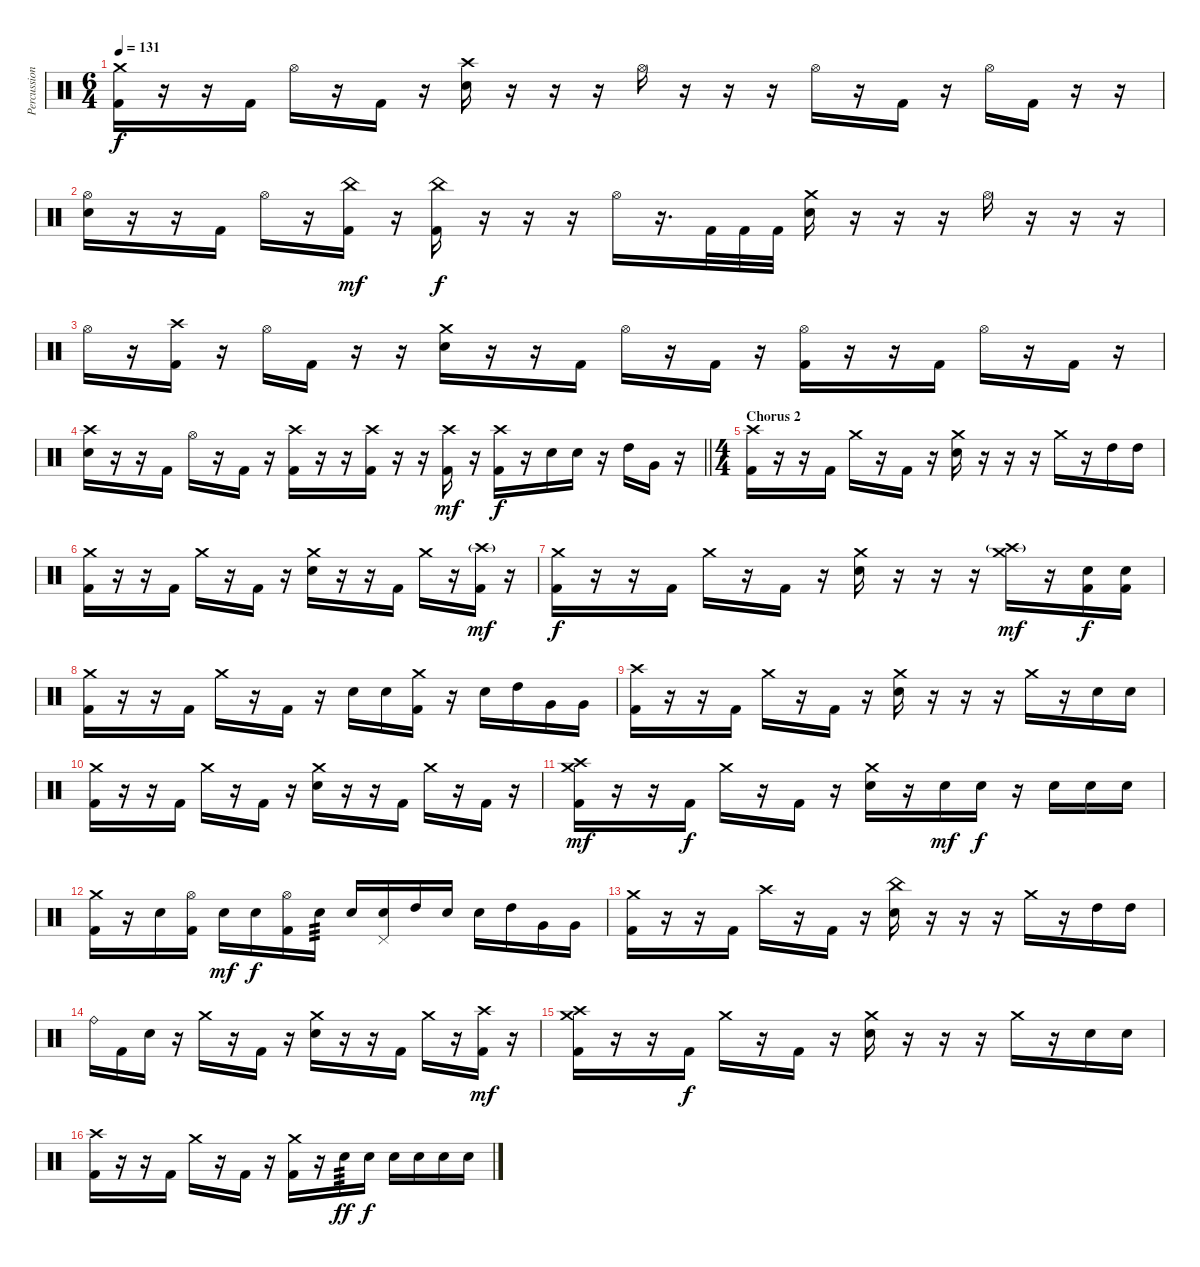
\track ("Percussion" "Percussion") {instrument percussion}
\staff {score}
\articulation defaults
\ts (6 4)
\tempo 131
\clef neutral
\ks c
("Crash medium (hit)" "Kick (hit) 2").16{dy f} r.16 r.16 "Kick (hit) 2".16 "Hi-Hat (open)".16 r.16 "Kick (hit) 2".16 r.16 ("Crash high (hit)" "Snare (hit) 2").16 r.16 r.16 r.16 "Hi-Hat (open)".16 r.16 r.16 r.16 "Hi-Hat (open)".16 r.16 "Kick (hit) 2".16 r.16 "Hi-Hat (open)".16 "Kick (hit) 2".16 r.16 r.16 |
("Hi-Hat (open)" "Snare (hit) 2").16 r.16 r.16 "Kick (hit) 2".16 "Hi-Hat (open)".16 r.16 ("China (hit)" "Kick (hit) 2").16{dy mf} r.16 ("China (hit)" "Kick (hit) 2").16{dy f} r.16 r.16 r.16 "Hi-Hat (open)".16 r.16{d} "Kick (hit) 2".32 "Kick (hit) 2".32 "Kick (hit) 2".32 ("Crash medium (hit)" "Snare (hit) 2").16 r.16 r.16 r.16 "Hi-Hat (open)".16 r.16 r.16 r.16 |
"Hi-Hat (open)".16 r.16 ("Crash high (hit)" "Kick (hit) 2").16 r.16 "Hi-Hat (open)".16 "Kick (hit) 2".16 r.16 r.16 ("Crash medium (hit)" "Snare (hit) 2").16 r.16 r.16 "Kick (hit) 2".16 "Hi-Hat (open)".16 r.16 "Kick (hit) 2".16 r.16 ("Hi-Hat (open)" "Kick (hit) 2").16 r.16 r.16 "Kick (hit) 2".16 "Hi-Hat (open)".16 r.16 "Kick (hit) 2".16 r.16 |
\barLineRight lightlight
("Crash high (hit)" "Snare (hit) 2").16 r.16 r.16 "Kick (hit) 2".16 "Hi-Hat (open)".16 r.16 "Kick (hit) 2".16 r.16 ("Crash high (hit)" "Kick (hit) 2").16 r.16 r.16 ("Crash high (hit)" "Kick (hit) 2").16 r.16 r.16 ("Crash high (hit)" "Kick (hit) 2").16{dy mf} r.16 ("Crash high (hit)" "Kick (hit) 2").16{dy f} r.16 "Snare (hit) 2".16 "Snare (hit) 2".16 r.16 "High Tom (hit)".16 "Very Low Tom (hit)".16 r.16 |
\ts (4 4)
\section ("" "Chorus 2")
("Crash high (hit)" "Kick (hit) 2").16 r.16 r.16 "Kick (hit) 2".16 "Crash medium (hit)".16 r.16 "Kick (hit) 2".16 r.16 ("Crash medium (hit)" "Snare (hit) 2").16 r.16 r.16 r.16 "Crash medium (hit)".16 r.16 "High Tom (hit)".16 "High Tom (hit)".16 |
("Crash medium (hit)" "Kick (hit) 2").16 r.16 r.16 "Kick (hit) 2".16 "Crash medium (hit)".16 r.16 "Kick (hit) 2".16 r.16 ("Crash medium (hit)" "Snare (hit) 2").16 r.16 r.16 "Kick (hit) 2".16 "Crash medium (hit)".16 r.16 ("Crash high (hit)"{g} "Kick (hit) 2").16{dy mf} r.16 |
("Crash medium (hit)" "Kick (hit) 2").16{dy f} r.16 r.16 "Kick (hit) 2".16 "Crash medium (hit)".16 r.16 "Kick (hit) 2".16 r.16 ("Crash medium (hit)" "Snare (hit) 2").16 r.16 r.16 r.16 ("Crash medium (hit)" "Crash high (hit)"{g}).16{dy mf} r.16 ("Snare (hit) 2" "Kick (hit) 2").16{dy f} ("Snare (hit) 2" "Kick (hit) 2").16 |
("Crash medium (hit)" "Kick (hit) 2").16 r.16 r.16 "Kick (hit) 2".16 "Crash medium (hit)".16 r.16 "Kick (hit) 2".16 r.16 "Snare (hit) 2".16 "Snare (hit) 2".16 ("Crash medium (hit)" "Kick (hit) 2").16 r.16 "Snare (hit) 2".16 "High Tom (hit)".16 "Very Low Tom (hit)".16 "Very Low Tom (hit)".16 |
("Crash high (hit)" "Kick (hit) 2").16 r.16 r.16 "Kick (hit) 2".16 "Crash medium (hit)".16 r.16 "Kick (hit) 2".16 r.16 ("Crash medium (hit)" "Snare (hit) 2").16 r.16 r.16 r.16 "Crash medium (hit)".16 r.16 "Snare (hit) 2".16 "Snare (hit) 2".16 |
("Crash medium (hit)" "Kick (hit) 2").16 r.16 r.16 "Kick (hit) 2".16 "Crash medium (hit)".16 r.16 "Kick (hit) 2".16 r.16 ("Crash medium (hit)" "Snare (hit) 2").16 r.16 r.16 "Kick (hit) 2".16 "Crash medium (hit)".16 r.16 "Kick (hit) 2".16 r.16 |
("Crash medium (hit)" "Crash high (hit)" "Kick (hit) 2").16{dy mf} r.16 r.16 "Kick (hit) 2".16{dy f} "Crash medium (hit)".16 r.16 "Kick (hit) 2".16 r.16 ("Crash medium (hit)" "Snare (hit) 2").16 r.16 "Snare (hit) 2".16{dy mf} "Snare (hit) 2".16{dy f} r.16 "Snare (hit) 2".16 "Snare (hit) 2".16 "Snare (hit) 2".16 |
("Crash medium (hit)" "Kick (hit) 2").16 r.16 "Snare (hit) 2".16 ("Hi-Hat (open)" "Kick (hit) 2").16 "Snare (hit) 2".16{dy mf} "Snare (hit) 2".16{dy f} ("Hi-Hat (open)" "Kick (hit) 2").16 "Snare (hit) 2".16{tp 3} "Snare (hit) 2".16 ("Pedal Hi-Hat (hit)" "Snare (hit) 2").16 "High Tom (hit)".16 "Snare (hit) 2".16 "Snare (hit) 2".16 "High Tom (hit)".16 "Very Low Tom (hit)".16 "Very Low Tom (hit)".16 |
("Crash medium (hit)" "Kick (hit) 2").16 r.16 r.16 "Kick (hit) 2".16 "Crash high (hit)".16 r.16 "Kick (hit) 2".16 r.16 ("China (hit)" "Snare (hit) 2").16 r.16 r.16 r.16 "Crash medium (hit)".16 r.16 "High Tom (hit)".16 "High Tom (hit)".16 |
"Ride (bell)".16 "Kick (hit) 2".16 "Snare (hit) 2".16 r.16 "Crash medium (hit)".16 r.16 "Kick (hit) 2".16 r.16 ("Crash medium (hit)" "Snare (hit) 2").16 r.16 r.16 "Kick (hit) 2".16 "Crash medium (hit)".16 r.16 ("Crash high (hit)" "Kick (hit) 2").16{dy mf} r.16 |
("Crash medium (hit)" "Crash high (hit)" "Kick (hit) 2").16 r.16 r.16 "Kick (hit) 2".16{dy f} "Crash medium (hit)".16 r.16 "Kick (hit) 2".16 r.16 ("Crash medium (hit)" "Snare (hit) 2").16 r.16 r.16 r.16 "Crash medium (hit)".16 r.16 "Snare (hit) 2".16 "Snare (hit) 2".16 |
("Crash high (hit)" "Kick (hit) 2").16 r.16 r.16 "Kick (hit) 2".16 "Crash medium (hit)".16 r.16 "Kick (hit) 2".16 r.16 ("Crash medium (hit)" "Kick (hit) 2").16 r.16 "Snare (hit) 2".16{tp 3 dy ff} "Snare (hit) 2".16{dy f} "Snare (hit) 2".16 "Snare (hit) 2".16 "Snare (hit) 2".16 "Snare (hit) 2".16
